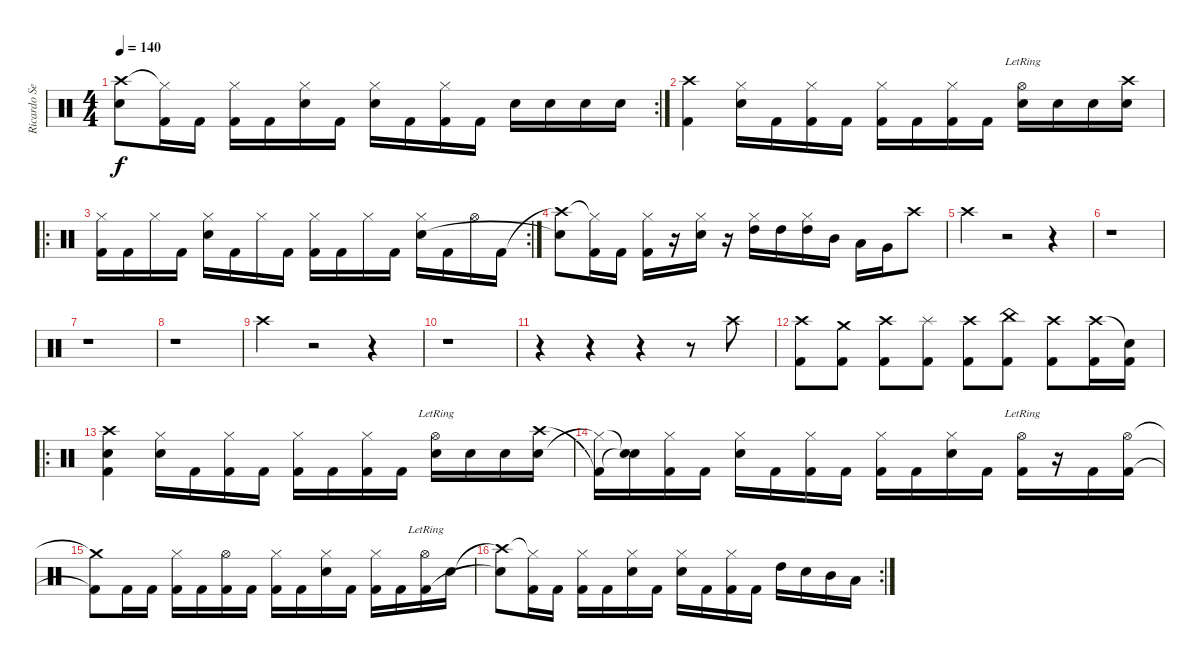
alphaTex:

\track ("Ricardo Severino" "Ricardo Se") {instrument percussion}
\staff {score}
\articulation defaults
\rc 2
\ts (4 4)
\tempo 140
\clef neutral
\ks c
("Crash high (hit)"{t} "Snare (hit) 2"{t}).8{dy f} ("Hi-Hat (closed)"{t} "Kick (hit) 2").16 "Kick (hit) 2".16 ("Hi-Hat (closed)" "Kick (hit) 2").16 "Kick (hit) 2".16 ("Hi-Hat (closed)" "Snare (hit) 2").16 "Kick (hit) 2".16 ("Hi-Hat (closed)" "Snare (hit) 2").16 "Kick (hit) 2".16 ("Hi-Hat (closed)" "Kick (hit) 2").16 "Kick (hit) 2".16 "Electric Snare (hit)".16 "Snare (hit) 2".16 "Electric Snare (hit)".16 "Snare (hit) 2".16 |
("Crash high (hit)" "Kick (hit) 2").4 ("Hi-Hat (closed)" "Snare (hit) 2").16 "Kick (hit) 2".16 ("Hi-Hat (closed)" "Kick (hit) 2").16 "Kick (hit) 2".16 ("Hi-Hat (closed)" "Kick (hit) 2").16 "Kick (hit) 2".16 ("Hi-Hat (closed)" "Kick (hit) 2").16 "Kick (hit) 2".16 ("Hi-Hat (open)"{lr} "Snare (hit) 2").16 "Snare (hit) 2".16 "Snare (hit) 2".16 ("Snare (hit) 2" "Crash high (hit)").16 |
\ro
\rc 2
("Hi-Hat (closed)" "Kick (hit) 2").16 "Kick (hit) 2".16 "Hi-Hat (closed)".16 "Kick (hit) 2".16 ("Hi-Hat (closed)" "Snare (hit) 2").16 "Kick (hit) 2".16 "Hi-Hat (closed)".16 "Kick (hit) 2".16 ("Hi-Hat (closed)" "Kick (hit) 2").16 "Kick (hit) 2".16 "Hi-Hat (closed)".16 "Kick (hit) 2".16 ("Hi-Hat (closed)" "Snare (hit) 2").16 "Kick (hit) 2".16 "Hi-Hat (open)".16 "Kick (hit) 2".16 |
("Crash high (hit)"{t} "Snare (hit) 2"{t}).8 ("Hi-Hat (closed)"{t} "Kick (hit) 2").16 "Kick (hit) 2".16 ("Hi-Hat (closed)" "Kick (hit) 2").16 r.16 ("Hi-Hat (closed)" "Snare (hit) 2").16 r.16 ("Hi-Hat (closed)" "High Tom (hit)").16 "High Tom (hit)".16 ("Hi-Hat (closed)" "High Tom (hit)").16 "Mid Tom (hit)".16 "Low Tom (hit)".16 "Very Low Tom (hit)".16 "Crash high (hit)".8 |
"Crash high (hit)".4 r.2 r.4 |
r.1 |
r.1 |
r.1 |
"Crash high (hit)".4 r.2 r.4 |
r.1 |
r.4 r.4 r.4 r.8 "Crash high (hit)".8 |
("Crash high (hit)" "Kick (hit) 2").8 ("Crash medium (hit)" "Kick (hit) 2").8 ("Crash high (hit)" "Kick (hit) 2").8 ("Splash (hit)" "Kick (hit) 2").8 ("Crash high (hit)" "Kick (hit) 2").8 ("China (hit)" "Kick (hit) 2").8 ("Crash high (hit)" "Kick (hit) 2").8 ("Crash high (hit)" "Kick (hit) 2").16 ("Snare (hit)"{t} "Kick (hit) 2").16 |
\ro
("Crash high (hit)" "Kick (hit) 2" "Snare (hit) 2").4 ("Hi-Hat (closed)" "Snare (hit) 2").16 "Kick (hit) 2".16 ("Hi-Hat (closed)" "Kick (hit) 2").16 "Kick (hit) 2".16 ("Hi-Hat (closed)" "Kick (hit) 2").16 "Kick (hit) 2".16 ("Hi-Hat (closed)" "Kick (hit) 2").16 "Kick (hit) 2".16 ("Hi-Hat (open)"{lr} "Snare (hit) 2").16 "Snare (hit) 2".16 "Snare (hit) 2".16 ("Snare (hit) 2" "Crash high (hit)").16 |
("Hi-Hat (closed)"{t} "Kick (hit) 2"{t}).16 ("Snare (hit)"{t} "Snare (hit)"{t}).16 ("Hi-Hat (closed)" "Kick (hit) 2").16 "Kick (hit) 2".16 ("Hi-Hat (closed)" "Snare (hit) 2").16 "Kick (hit) 2".16 ("Hi-Hat (closed)" "Kick (hit) 2").16 "Kick (hit) 2".16 ("Hi-Hat (closed)" "Kick (hit) 2").16 "Kick (hit) 2".16 ("Hi-Hat (closed)" "Snare (hit) 2").16 "Kick (hit) 2".16 ("Hi-Hat (open)"{lr} "Kick (hit) 2").16 r.16 "Kick (hit) 2".16 ("Hi-Hat (open)" "Kick (hit) 2").16 |
("Crash medium (hit)"{t} "Kick (hit) 2"{t}).8 "Kick (hit) 2".16 "Kick (hit) 2".16 ("Hi-Hat (closed)" "Kick (hit) 2").16 "Kick (hit) 2".16 ("Hi-Hat (open)" "Kick (hit) 2").16 "Kick (hit) 2".16 ("Hi-Hat (closed)" "Kick (hit) 2").16 "Kick (hit) 2".16 ("Hi-Hat (closed)" "Snare (hit) 2").16 "Kick (hit) 2".16 ("Hi-Hat (closed)" "Kick (hit) 2").16 "Kick (hit) 2".16 ("Hi-Hat (open)"{lr} "Kick (hit) 2").16 "Snare (hit) 2".16 |
\rc 2
("Crash high (hit)"{t} "Snare (hit) 2"{t}).8 ("Hi-Hat (closed)"{t} "Kick (hit) 2").16 "Kick (hit) 2".16 ("Hi-Hat (closed)" "Kick (hit) 2").16 "Kick (hit) 2".16 ("Hi-Hat (closed)" "Snare (hit) 2").16 "Kick (hit) 2".16 ("Hi-Hat (closed)" "Snare (hit) 2").16 "Kick (hit) 2".16 ("Hi-Hat (closed)" "Kick (hit) 2").16 "Kick (hit) 2".16 "High Tom (hit)".16 "Snare (hit) 2".16 "Mid Tom (hit)".16 "Low Tom (hit)".16
